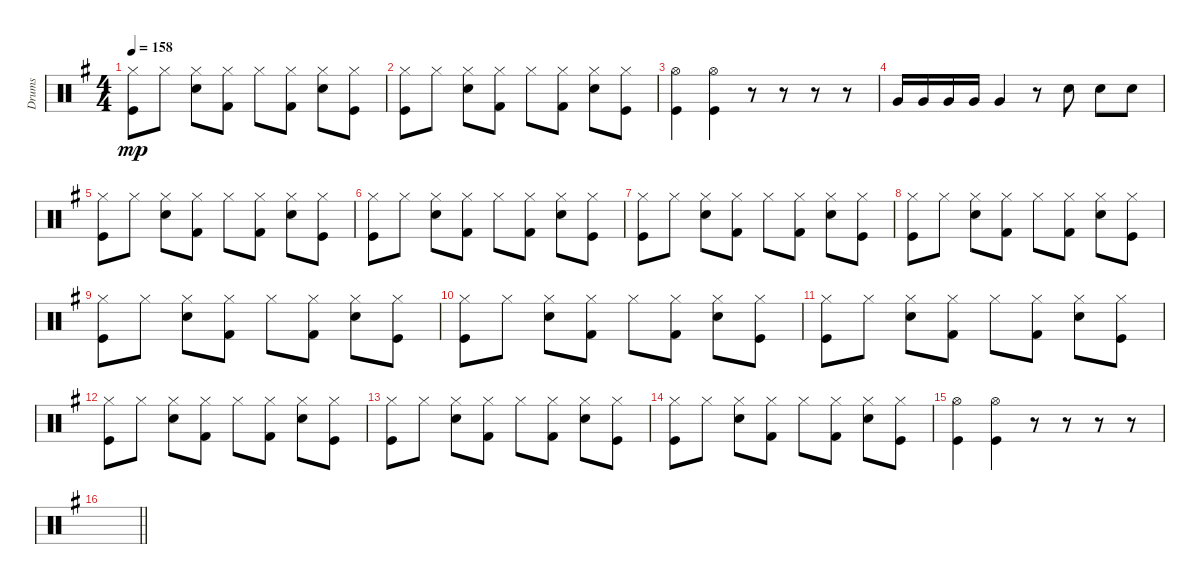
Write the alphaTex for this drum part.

\track ("Drums" "Drums") {instrument percussion}
\staff {score}
\articulation defaults
\ts (4 4)
\tempo 158
\clef neutral
\ks g
("Hi-Hat (closed)" "Kick (hit)").8{dy mp} "Hi-Hat (closed)".8 ("Hi-Hat (closed)" "Snare (hit) 2").8 ("Hi-Hat (closed)" "Kick (hit) 2").8 "Hi-Hat (closed)".8 ("Hi-Hat (closed)" "Kick (hit) 2").8 ("Hi-Hat (closed)" "Snare (hit) 2").8 ("Hi-Hat (closed)" "Kick (hit)").8 |
("Hi-Hat (closed)" "Kick (hit)").8 "Hi-Hat (closed)".8 ("Hi-Hat (closed)" "Snare (hit) 2").8 ("Hi-Hat (closed)" "Kick (hit) 2").8 "Hi-Hat (closed)".8 ("Hi-Hat (closed)" "Kick (hit) 2").8 ("Hi-Hat (closed)" "Snare (hit) 2").8 ("Hi-Hat (closed)" "Kick (hit)").8 |
("Hi-Hat (open)" "Kick (hit)").4 ("Hi-Hat (open)" "Kick (hit)").4 r.8 r.8 r.8 r.8 |
"Very Low Tom (hit)".16 "Very Low Tom (hit)".16 "Very Low Tom (hit)".16 "Very Low Tom (hit)".16 "Very Low Tom (hit)".4 r.8 "Snare (hit) 2".8 "Snare (hit) 2".8 "Snare (hit) 2".8 |
("Hi-Hat (closed)" "Kick (hit)").8 "Hi-Hat (closed)".8 ("Hi-Hat (closed)" "Snare (hit) 2").8 ("Hi-Hat (closed)" "Kick (hit) 2").8 "Hi-Hat (closed)".8 ("Hi-Hat (closed)" "Kick (hit) 2").8 ("Hi-Hat (closed)" "Snare (hit) 2").8 ("Hi-Hat (closed)" "Kick (hit)").8 |
("Hi-Hat (closed)" "Kick (hit)").8 "Hi-Hat (closed)".8 ("Hi-Hat (closed)" "Snare (hit) 2").8 ("Hi-Hat (closed)" "Kick (hit) 2").8 "Hi-Hat (closed)".8 ("Hi-Hat (closed)" "Kick (hit) 2").8 ("Hi-Hat (closed)" "Snare (hit) 2").8 ("Hi-Hat (closed)" "Kick (hit)").8 |
("Hi-Hat (closed)" "Kick (hit)").8 "Hi-Hat (closed)".8 ("Hi-Hat (closed)" "Snare (hit) 2").8 ("Hi-Hat (closed)" "Kick (hit) 2").8 "Hi-Hat (closed)".8 ("Hi-Hat (closed)" "Kick (hit) 2").8 ("Hi-Hat (closed)" "Snare (hit) 2").8 ("Hi-Hat (closed)" "Kick (hit)").8 |
("Hi-Hat (closed)" "Kick (hit)").8 "Hi-Hat (closed)".8 ("Hi-Hat (closed)" "Snare (hit) 2").8 ("Hi-Hat (closed)" "Kick (hit) 2").8 "Hi-Hat (closed)".8 ("Hi-Hat (closed)" "Kick (hit) 2").8 ("Hi-Hat (closed)" "Snare (hit) 2").8 ("Hi-Hat (closed)" "Kick (hit)").8 |
("Hi-Hat (closed)" "Kick (hit)").8 "Hi-Hat (closed)".8 ("Hi-Hat (closed)" "Snare (hit) 2").8 ("Hi-Hat (closed)" "Kick (hit) 2").8 "Hi-Hat (closed)".8 ("Hi-Hat (closed)" "Kick (hit) 2").8 ("Hi-Hat (closed)" "Snare (hit) 2").8 ("Hi-Hat (closed)" "Kick (hit)").8 |
("Hi-Hat (closed)" "Kick (hit)").8 "Hi-Hat (closed)".8 ("Hi-Hat (closed)" "Snare (hit) 2").8 ("Hi-Hat (closed)" "Kick (hit) 2").8 "Hi-Hat (closed)".8 ("Hi-Hat (closed)" "Kick (hit) 2").8 ("Hi-Hat (closed)" "Snare (hit) 2").8 ("Hi-Hat (closed)" "Kick (hit)").8 |
("Hi-Hat (closed)" "Kick (hit)").8 "Hi-Hat (closed)".8 ("Hi-Hat (closed)" "Snare (hit) 2").8 ("Hi-Hat (closed)" "Kick (hit) 2").8 "Hi-Hat (closed)".8 ("Hi-Hat (closed)" "Kick (hit) 2").8 ("Hi-Hat (closed)" "Snare (hit) 2").8 ("Hi-Hat (closed)" "Kick (hit)").8 |
("Hi-Hat (closed)" "Kick (hit)").8 "Hi-Hat (closed)".8 ("Hi-Hat (closed)" "Snare (hit) 2").8 ("Hi-Hat (closed)" "Kick (hit) 2").8 "Hi-Hat (closed)".8 ("Hi-Hat (closed)" "Kick (hit) 2").8 ("Hi-Hat (closed)" "Snare (hit) 2").8 ("Hi-Hat (closed)" "Kick (hit)").8 |
("Hi-Hat (closed)" "Kick (hit)").8 "Hi-Hat (closed)".8 ("Hi-Hat (closed)" "Snare (hit) 2").8 ("Hi-Hat (closed)" "Kick (hit) 2").8 "Hi-Hat (closed)".8 ("Hi-Hat (closed)" "Kick (hit) 2").8 ("Hi-Hat (closed)" "Snare (hit) 2").8 ("Hi-Hat (closed)" "Kick (hit)").8 |
("Hi-Hat (closed)" "Kick (hit)").8 "Hi-Hat (closed)".8 ("Hi-Hat (closed)" "Snare (hit) 2").8 ("Hi-Hat (closed)" "Kick (hit) 2").8 "Hi-Hat (closed)".8 ("Hi-Hat (closed)" "Kick (hit) 2").8 ("Hi-Hat (closed)" "Snare (hit) 2").8 ("Hi-Hat (closed)" "Kick (hit)").8 |
("Hi-Hat (open)" "Kick (hit)").4 ("Hi-Hat (open)" "Kick (hit)").4 r.8 r.8 r.8 r.8 |
\barLineRight lightlight
